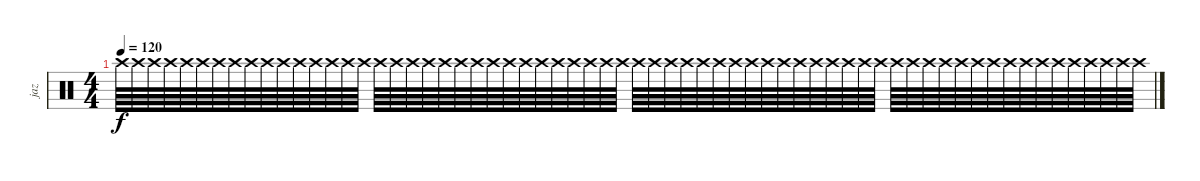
\track ("jaz" "jaz") {instrument percussion}
\staff {score}
\articulation defaults
\ts (4 4)
\tempo 120
\clef neutral
\ks c "Crash high (hit)".64{dy f} "Crash high (hit)".64 "Crash high (hit)".64 "Crash high (hit)".64 "Crash high (hit)".64 "Crash high (hit)".64 "Crash high (hit)".64 "Crash high (hit)".64 "Crash high (hit)".64 "Crash high (hit)".64 "Crash high (hit)".64 "Crash high (hit)".64 "Crash high (hit)".64 "Crash high (hit)".64 "Crash high (hit)".64 "Crash high (hit)".64 "Crash high (hit)".64 "Crash high (hit)".64 "Crash high (hit)".64 "Crash high (hit)".64 "Crash high (hit)".64 "Crash high (hit)".64 "Crash high (hit)".64 "Crash high (hit)".64 "Crash high (hit)".64 "Crash high (hit)".64 "Crash high (hit)".64 "Crash high (hit)".64 "Crash high (hit)".64 "Crash high (hit)".64 "Crash high (hit)".64 "Crash high (hit)".64 "Crash high (hit)".64 "Crash high (hit)".64 "Crash high (hit)".64 "Crash high (hit)".64 "Crash high (hit)".64 "Crash high (hit)".64 "Crash high (hit)".64 "Crash high (hit)".64 "Crash high (hit)".64 "Crash high (hit)".64 "Crash high (hit)".64 "Crash high (hit)".64 "Crash high (hit)".64 "Crash high (hit)".64 "Crash high (hit)".64 "Crash high (hit)".64 "Crash high (hit)".64 "Crash high (hit)".64 "Crash high (hit)".64 "Crash high (hit)".64 "Crash high (hit)".64 "Crash high (hit)".64 "Crash high (hit)".64 "Crash high (hit)".64 "Crash high (hit)".64 "Crash high (hit)".64 "Crash high (hit)".64 "Crash high (hit)".64 "Crash high (hit)".64 "Crash high (hit)".64 "Crash high (hit)".64 "Crash high (hit)".64
